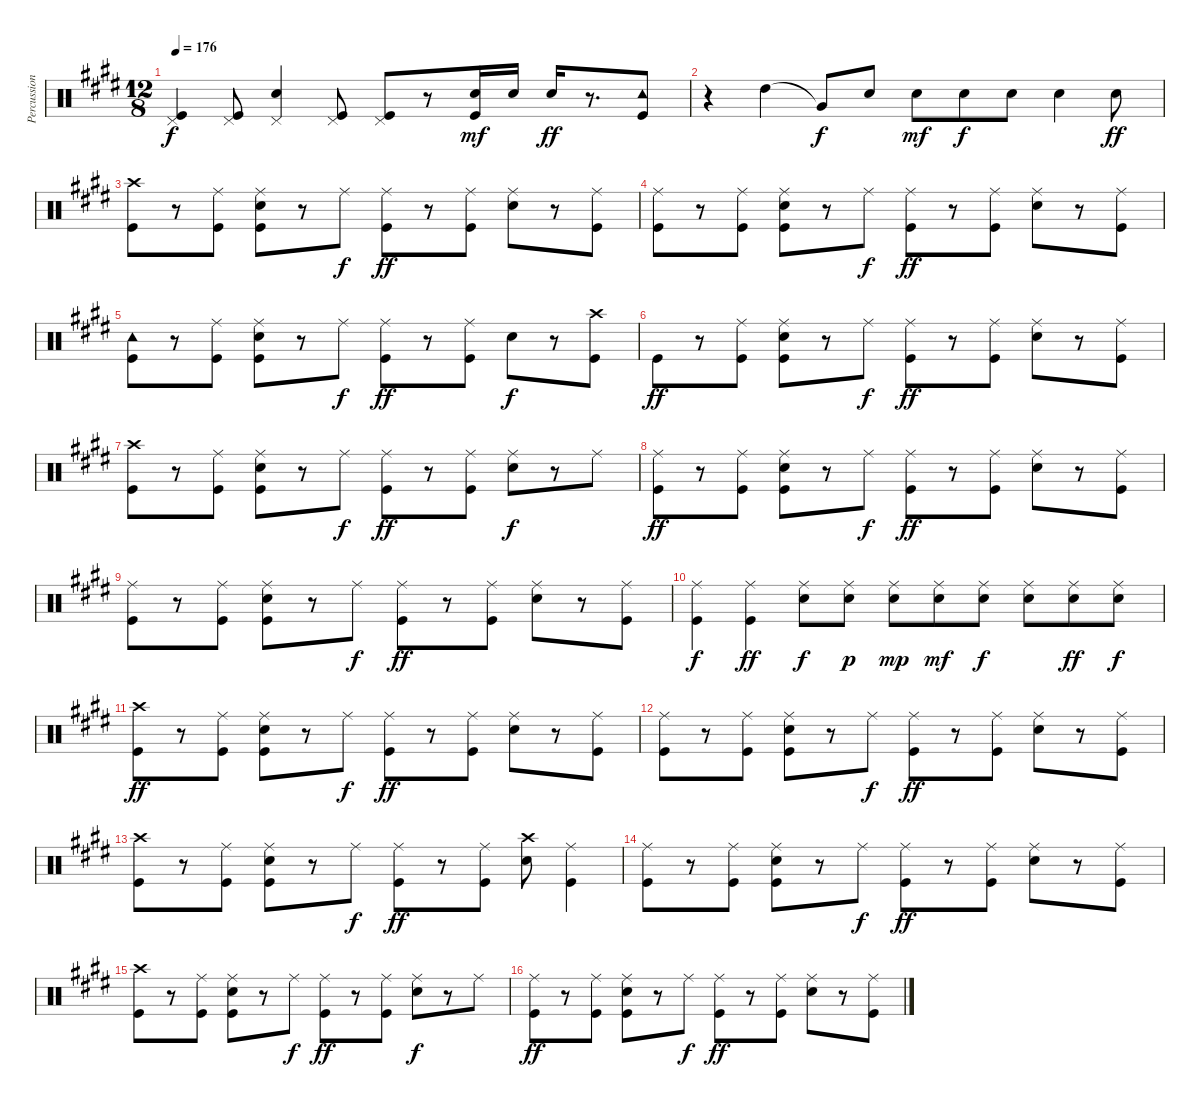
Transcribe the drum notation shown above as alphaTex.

\track ("Percussion" "Percussion") {instrument percussion}
\staff {score}
\articulation defaults
\ts (12 8)
\tempo 176
\clef neutral
\ks e
("Pedal Hi-Hat (hit)" "Kick (hit)").4{dy f} ("Pedal Hi-Hat (hit)" "Kick (hit)").8 ("Electric Snare (hit)" "Pedal Hi-Hat (hit)").4 ("Pedal Hi-Hat (hit)" "Kick (hit)").8 ("Pedal Hi-Hat (hit)" "Kick (hit)").8 r.8 ("Snare (hit) 2" "Kick (hit)").16{dy mf} "Snare (hit) 2".16 "Snare (hit) 2".16{dy ff} r.8{d} ("Tambourine (hit)" "Kick (hit)").8 |
r.4 "High Tom (hit)".4 "Very Low Tom (hit)"{t}.8{dy f} "Hand Clap (hit)".8 "Snare (hit) 2".8{dy mf} "Snare (hit) 2".8{dy f} "Snare (hit) 2".8 "Snare (hit) 2".4 "Electric Snare (hit)".8{dy ff} |
("Crash high (hit)" "Kick (hit)").8 r.8 ("Ride (middle)" "Kick (hit)").8 ("Ride (middle)" "Electric Snare (hit)" "Kick (hit)").8 r.8 "Ride (middle)".8{dy f} ("Ride (middle)" "Kick (hit)").8{dy ff} r.8 ("Ride (middle)" "Kick (hit)").8 ("Ride (middle)" "Electric Snare (hit)").8 r.8 ("Ride (middle)" "Kick (hit)").8 |
("Ride (middle)" "Kick (hit)").8 r.8 ("Ride (middle)" "Kick (hit)").8 ("Ride (middle)" "Electric Snare (hit)" "Kick (hit)").8 r.8 "Ride (middle)".8{dy f} ("Ride (middle)" "Kick (hit)").8{dy ff} r.8 ("Ride (middle)" "Kick (hit)").8 ("Ride (middle)" "Electric Snare (hit)").8 r.8 ("Ride (middle)" "Kick (hit)").8 |
("Tambourine (hit)" "Kick (hit)").8 r.8 ("Ride (middle)" "Kick (hit)").8 ("Ride (middle)" "Electric Snare (hit)" "Kick (hit)").8 r.8 "Ride (middle)".8{dy f} ("Ride (middle)" "Kick (hit)").8{dy ff} r.8 ("Ride (middle)" "Kick (hit)").8 "Electric Snare (hit)".8{dy f} r.8 ("Crash high (hit)" "Kick (hit)").8 |
"Kick (hit)".8{dy ff} r.8 ("Ride (middle)" "Kick (hit)").8 ("Ride (middle)" "Electric Snare (hit)" "Kick (hit)").8 r.8 "Ride (middle)".8{dy f} ("Ride (middle)" "Kick (hit)").8{dy ff} r.8 ("Ride (middle)" "Kick (hit)").8 ("Ride (middle)" "Electric Snare (hit)").8 r.8 ("Ride (middle)" "Kick (hit)").8 |
("Crash high (hit)" "Kick (hit)").8 r.8 ("Ride (middle)" "Kick (hit)").8 ("Ride (middle)" "Electric Snare (hit)" "Kick (hit)").8 r.8 "Ride (middle)".8{dy f} ("Ride (middle)" "Kick (hit)").8{dy ff} r.8 ("Ride (middle)" "Kick (hit)").8 ("Ride (middle)" "Electric Snare (hit)").8{dy f} r.8 "Ride (middle)".8 |
("Ride (middle)" "Kick (hit)").8{dy ff} r.8 ("Ride (middle)" "Kick (hit)").8 ("Ride (middle)" "Electric Snare (hit)" "Kick (hit)").8 r.8 "Ride (middle)".8{dy f} ("Ride (middle)" "Kick (hit)").8{dy ff} r.8 ("Ride (middle)" "Kick (hit)").8 ("Ride (middle)" "Electric Snare (hit)").8 r.8 ("Ride (middle)" "Kick (hit)").8 |
("Ride (middle)" "Kick (hit)").8 r.8 ("Ride (middle)" "Kick (hit)").8 ("Ride (middle)" "Electric Snare (hit)" "Kick (hit)").8 r.8 "Ride (middle)".8{dy f} ("Ride (middle)" "Kick (hit)").8{dy ff} r.8 ("Ride (middle)" "Kick (hit)").8 ("Ride (middle)" "Electric Snare (hit)").8 r.8 ("Ride (middle)" "Kick (hit)").8 |
("Ride (middle)" "Kick (hit)").4{dy f} ("Ride (middle)" "Kick (hit)").4{dy ff} ("Ride (middle)" "Electric Snare (hit)").8{dy f} ("Ride (middle)" "Snare (hit) 2").8{dy p} ("Ride (middle)" "Snare (hit) 2").8{dy mp} ("Ride (middle)" "Snare (hit) 2").8{dy mf} ("Ride (middle)" "Snare (hit) 2").8{dy f} ("Ride (middle)" "Snare (hit) 2").8 ("Ride (middle)" "Electric Snare (hit)").8{dy ff} ("Ride (middle)" "Electric Snare (hit)").8{dy f} |
("Crash high (hit)" "Kick (hit)").8{dy ff} r.8 ("Ride (middle)" "Kick (hit)").8 ("Ride (middle)" "Electric Snare (hit)" "Kick (hit)").8 r.8 "Ride (middle)".8{dy f} ("Ride (middle)" "Kick (hit)").8{dy ff} r.8 ("Ride (middle)" "Kick (hit)").8 ("Ride (middle)" "Electric Snare (hit)").8 r.8 ("Ride (middle)" "Kick (hit)").8 |
("Ride (middle)" "Kick (hit)").8 r.8 ("Ride (middle)" "Kick (hit)").8 ("Ride (middle)" "Electric Snare (hit)" "Kick (hit)").8 r.8 "Ride (middle)".8{dy f} ("Ride (middle)" "Kick (hit)").8{dy ff} r.8 ("Ride (middle)" "Kick (hit)").8 ("Ride (middle)" "Electric Snare (hit)").8 r.8 ("Ride (middle)" "Kick (hit)").8 |
("Crash high (hit)" "Kick (hit)").8 r.8 ("Ride (middle)" "Kick (hit)").8 ("Ride (middle)" "Electric Snare (hit)" "Kick (hit)").8 r.8 "Ride (middle)".8{dy f} ("Ride (middle)" "Kick (hit)").8{dy ff} r.8 ("Ride (middle)" "Kick (hit)").8 ("Crash high (hit)" "Electric Snare (hit)").8 ("Ride (middle)" "Kick (hit)").4 |
("Ride (middle)" "Kick (hit)").8 r.8 ("Ride (middle)" "Kick (hit)").8 ("Ride (middle)" "Electric Snare (hit)" "Kick (hit)").8 r.8 "Ride (middle)".8{dy f} ("Ride (middle)" "Kick (hit)").8{dy ff} r.8 ("Ride (middle)" "Kick (hit)").8 ("Ride (middle)" "Electric Snare (hit)").8 r.8 ("Ride (middle)" "Kick (hit)").8 |
("Crash high (hit)" "Kick (hit)").8 r.8 ("Ride (middle)" "Kick (hit)").8 ("Ride (middle)" "Electric Snare (hit)" "Kick (hit)").8 r.8 "Ride (middle)".8{dy f} ("Ride (middle)" "Kick (hit)").8{dy ff} r.8 ("Ride (middle)" "Kick (hit)").8 ("Ride (middle)" "Electric Snare (hit)").8{dy f} r.8 "Ride (middle)".8 |
("Ride (middle)" "Kick (hit)").8{dy ff} r.8 ("Ride (middle)" "Kick (hit)").8 ("Ride (middle)" "Electric Snare (hit)" "Kick (hit)").8 r.8 "Ride (middle)".8{dy f} ("Ride (middle)" "Kick (hit)").8{dy ff} r.8 ("Ride (middle)" "Kick (hit)").8 ("Ride (middle)" "Electric Snare (hit)").8 r.8 ("Ride (middle)" "Kick (hit)").8
